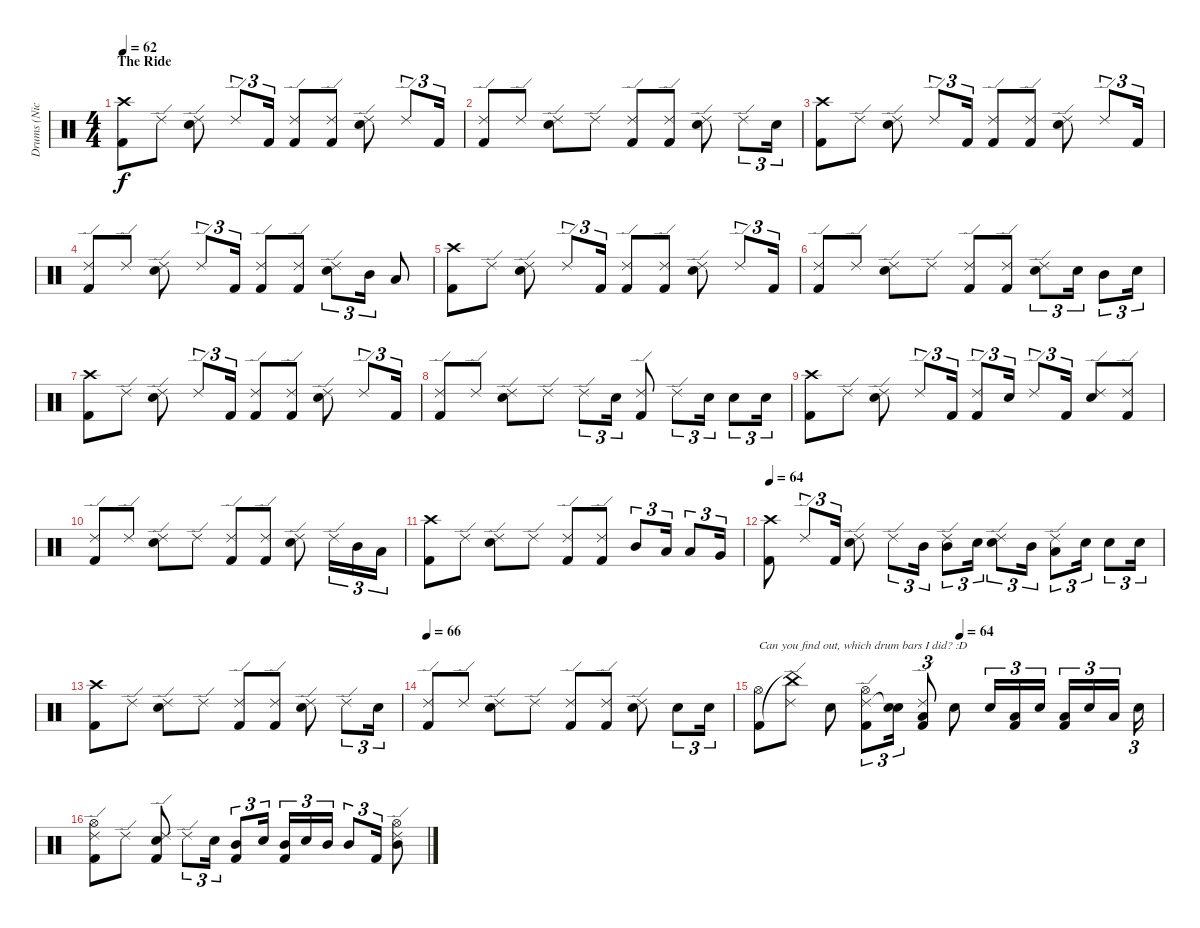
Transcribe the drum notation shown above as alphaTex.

\track ("Drums (Nick)" "Drums (Nic") {instrument percussion}
\staff {score}
\articulation defaults
\ts (4 4)
\section ("" "The Ride")
\tempo 62
\clef neutral
\ks c
("Crash high (hit)" "Kick (hit) 2").8{dy f} "Ride (edge) 2".8 ("Ride (edge) 2" "Electric Snare (hit)").8 "Ride (edge) 2".8{tu (3 2)} "Kick (hit) 2".16{tu (3 2)} ("Ride (edge) 2" "Kick (hit) 2").8 ("Ride (edge) 2" "Kick (hit) 2").8 ("Ride (edge) 2" "Electric Snare (hit)").8 "Ride (edge) 2".8{tu (3 2)} "Kick (hit) 2".16{tu (3 2)} |
("Ride (edge) 2" "Kick (hit) 2").8 "Ride (edge) 2".8 ("Ride (edge) 2" "Electric Snare (hit)").8 "Ride (edge) 2".8 ("Ride (edge) 2" "Kick (hit) 2").8 ("Ride (edge) 2" "Kick (hit) 2").8 ("Ride (edge) 2" "Electric Snare (hit)").8 "Ride (edge) 2".8{tu (3 2)} "Electric Snare (hit)".16{tu (3 2)} |
("Crash high (hit)" "Kick (hit) 2").8 "Ride (edge) 2".8 ("Ride (edge) 2" "Electric Snare (hit)").8 "Ride (edge) 2".8{tu (3 2)} "Kick (hit) 2".16{tu (3 2)} ("Ride (edge) 2" "Kick (hit) 2").8 ("Ride (edge) 2" "Kick (hit) 2").8 ("Ride (edge) 2" "Electric Snare (hit)").8 "Ride (edge) 2".8{tu (3 2)} "Kick (hit) 2".16{tu (3 2)} |
("Ride (edge) 2" "Kick (hit) 2").8 "Ride (edge) 2".8 ("Ride (edge) 2" "Electric Snare (hit)").8 "Ride (edge) 2".8{tu (3 2)} "Kick (hit) 2".16{tu (3 2)} ("Ride (edge) 2" "Kick (hit) 2").8 ("Ride (edge) 2" "Kick (hit) 2").8 ("Ride (edge) 2" "Electric Snare (hit)").8{tu (3 2)} "Mid Tom (hit)".16{tu (3 2)} "Low Tom (hit)".8 |
("Crash high (hit)" "Kick (hit) 2").8 "Ride (edge) 2".8 ("Ride (edge) 2" "Electric Snare (hit)").8 "Ride (edge) 2".8{tu (3 2)} "Kick (hit) 2".16{tu (3 2)} ("Ride (edge) 2" "Kick (hit) 2").8 ("Ride (edge) 2" "Kick (hit) 2").8 ("Ride (edge) 2" "Electric Snare (hit)").8 "Ride (edge) 2".8{tu (3 2)} "Kick (hit) 2".16{tu (3 2)} |
("Ride (edge) 2" "Kick (hit) 2").8 "Ride (edge) 2".8 ("Ride (edge) 2" "Electric Snare (hit)").8 "Ride (edge) 2".8 ("Ride (edge) 2" "Kick (hit) 2").8 ("Ride (edge) 2" "Kick (hit) 2").8 ("Ride (edge) 2" "Electric Snare (hit)").8{tu (3 2)} "Electric Snare (hit)".16{tu (3 2)} "Mid Tom (hit)".8{tu (3 2)} "Electric Snare (hit)".16{tu (3 2)} |
("Crash high (hit)" "Kick (hit) 2").8 "Ride (edge) 2".8 ("Ride (edge) 2" "Electric Snare (hit)").8 "Ride (edge) 2".8{tu (3 2)} "Kick (hit) 2".16{tu (3 2)} ("Ride (edge) 2" "Kick (hit) 2").8 ("Ride (edge) 2" "Kick (hit) 2").8 ("Ride (edge) 2" "Electric Snare (hit)").8 "Ride (edge) 2".8{tu (3 2)} "Kick (hit) 2".16{tu (3 2)} |
("Ride (edge) 2" "Kick (hit) 2").8 "Ride (edge) 2".8 ("Ride (edge) 2" "Electric Snare (hit)").8 "Ride (edge) 2".8 "Ride (edge) 2".8{tu (3 2)} "Electric Snare (hit)".16{tu (3 2)} ("Ride (edge) 2" "Kick (hit) 2").8 "Ride (edge) 2".8{tu (3 2)} "Electric Snare (hit)".16{tu (3 2)} "Electric Snare (hit)".8{tu (3 2)} "Electric Snare (hit)".16{tu (3 2)} |
("Crash high (hit)" "Kick (hit) 2").8 "Ride (edge) 2".8 ("Ride (edge) 2" "Electric Snare (hit)").8 "Ride (edge) 2".8{tu (3 2)} "Kick (hit) 2".16{tu (3 2)} ("Ride (edge) 2" "Kick (hit) 2").8{tu (3 2)} "Electric Snare (hit)".16{tu (3 2)} "Ride (edge) 2".8{tu (3 2)} "Kick (hit) 2".16{tu (3 2)} ("Ride (edge) 2" "Electric Snare (hit)").8 ("Ride (edge) 2" "Kick (hit) 2").8 |
("Ride (edge) 2" "Kick (hit) 2").8 "Ride (edge) 2".8 ("Ride (edge) 2" "Electric Snare (hit)").8 "Ride (edge) 2".8 ("Ride (edge) 2" "Kick (hit) 2").8 ("Ride (edge) 2" "Kick (hit) 2").8 ("Ride (edge) 2" "Electric Snare (hit)").8 "Ride (edge) 2".16{tu (3 2)} "Mid Tom (hit)".16{tu (3 2)} "Low Tom (hit)".16{tu (3 2)} |
("Crash high (hit)" "Kick (hit) 2").8 "Ride (edge) 2".8 ("Ride (edge) 2" "Electric Snare (hit)").8 "Ride (edge) 2".8 ("Ride (edge) 2" "Kick (hit) 2").8 ("Ride (edge) 2" "Kick (hit) 2").8 "Mid Tom (hit)".8{tu (3 2)} "Low Tom (hit)".16{tu (3 2)} "Low Tom (hit)".8{tu (3 2)} "Very Low Tom (hit)".16{tu (3 2)} |
\tempo 64
("Crash high (hit)" "Kick (hit) 2").8 "Ride (edge) 2".8{tu (3 2)} "Kick (hit) 2".16{tu (3 2)} ("Ride (edge) 2" "Electric Snare (hit)").8 "Ride (edge) 2".8{tu (3 2)} "Mid Tom (hit)".16{tu (3 2)} ("Ride (edge) 2" "Mid Tom (hit)").8{tu (3 2)} "Electric Snare (hit)".16{tu (3 2)} ("Ride (edge) 2" "Electric Snare (hit)").8{tu (3 2)} "Mid Tom (hit)".16{tu (3 2)} ("Ride (edge) 2" "Low Tom (hit)").8{tu (3 2)} "Electric Snare (hit)".16{tu (3 2)} "Electric Snare (hit)".8{tu (3 2)} "Electric Snare (hit)".16{tu (3 2)} |
("Crash high (hit)" "Kick (hit) 2").8 "Ride (edge) 2".8 ("Ride (edge) 2" "Electric Snare (hit)").8 "Ride (edge) 2".8 ("Ride (edge) 2" "Kick (hit) 2").8 ("Ride (edge) 2" "Kick (hit) 2").8 ("Ride (edge) 2" "Electric Snare (hit)").8 "Ride (edge) 2".8{tu (3 2)} "Electric Snare (hit)".16{tu (3 2)} |
\tempo 66
("Ride (edge) 2" "Kick (hit) 2").8 "Ride (edge) 2".8 ("Ride (edge) 2" "Electric Snare (hit)").8 "Ride (edge) 2".8 ("Ride (edge) 2" "Kick (hit) 2").8 ("Ride (edge) 2" "Kick (hit) 2").8 ("Ride (edge) 2" "Electric Snare (hit)").8 "Electric Snare (hit)".8{tu (3 2)} "Electric Snare (hit)".16{tu (3 2)} |
\tempo (64 0.5)
("Hi-Hat (open)" "Kick (hit) 2").8{txt "Can you find out, which drum bars I did? :D"} ("Ride (edge) 2" "China (hit)"{t}).8 "Electric Snare (hit)".8 ("Ride (edge) 2" "Hi-Hat (open)" "Kick (hit) 2").8{tu (3 2)} ("Snare (hit)"{t} "Electric Snare (hit)").16{tu (3 2)} ("Ride (edge) 2" "Low Tom (hit)" "Kick (hit) 2").8{tu (3 2)} "Electric Snare (hit)".8 "Electric Snare (hit)".16{tu (3 2)} ("Low Tom (hit)" "Kick (hit) 2").16{tu (3 2)} "Electric Snare (hit)".16{tu (3 2)} ("Low Tom (hit)" "Kick (hit) 2").16{tu (3 2)} "Electric Snare (hit)".16{tu (3 2)} "Low Tom (hit)".16{tu (3 2)} "Electric Snare (hit)".16{tu (3 2)} |
("Ride (edge) 2" "Hi-Hat (open)" "Kick (hit) 2").8 "Ride (edge) 2".8 ("Ride (edge) 2" "Electric Snare (hit)" "Kick (hit) 2").8 "Ride (edge) 2".8{tu (3 2)} "Electric Snare (hit)".16{tu (3 2)} ("Mid Tom (hit)" "Kick (hit) 2").8{tu (3 2)} "Electric Snare (hit)".16{tu (3 2)} ("Mid Tom (hit)" "Kick (hit) 2").16{tu (3 2)} "Electric Snare (hit)".16{tu (3 2)} "Mid Tom (hit)".16{tu (3 2)} "Mid Tom (hit)".8{tu (3 2)} "Kick (hit) 2".16{tu (3 2)} ("Ride (edge) 2" "Hi-Hat (open)" "Mid Tom (hit)").8
